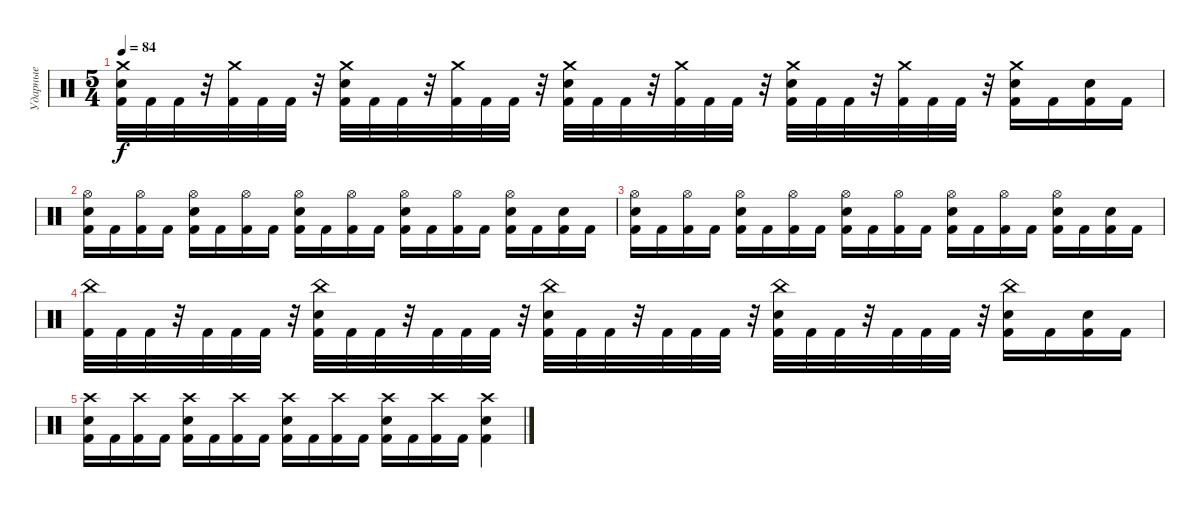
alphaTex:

\track ("Ударные" "Ударные") {instrument percussion}
\staff {score}
\articulation defaults
\ts (5 4)
\tempo 84
\clef neutral
\ks c
("Crash medium (hit)" "Snare (hit) 2" "Kick (hit) 2").32{dy f} "Kick (hit) 2".32 "Kick (hit) 2".32 r.32 ("Crash medium (hit)" "Kick (hit) 2").32 "Kick (hit) 2".32 "Kick (hit) 2".32 r.32 ("Crash medium (hit)" "Snare (hit) 2" "Kick (hit) 2").32 "Kick (hit) 2".32 "Kick (hit) 2".32 r.32 ("Crash medium (hit)" "Kick (hit) 2").32 "Kick (hit) 2".32 "Kick (hit) 2".32 r.32 ("Crash medium (hit)" "Snare (hit) 2" "Kick (hit) 2").32 "Kick (hit) 2".32 "Kick (hit) 2".32 r.32 ("Crash medium (hit)" "Kick (hit) 2").32 "Kick (hit) 2".32 "Kick (hit) 2".32 r.32 ("Crash medium (hit)" "Snare (hit) 2" "Kick (hit) 2").32 "Kick (hit) 2".32 "Kick (hit) 2".32 r.32 ("Crash medium (hit)" "Kick (hit) 2").32 "Kick (hit) 2".32 "Kick (hit) 2".32 r.32 ("Crash medium (hit)" "Snare (hit) 2" "Kick (hit) 2").16 "Kick (hit) 2".16 ("Snare (hit) 2" "Kick (hit) 2").16 "Kick (hit) 2".16 |
("Hi-Hat (open)" "Snare (hit) 2" "Kick (hit) 2").16 "Kick (hit) 2".16 ("Hi-Hat (open)" "Kick (hit) 2").16 "Kick (hit) 2".16 ("Hi-Hat (open)" "Snare (hit) 2" "Kick (hit) 2").16 "Kick (hit) 2".16 ("Hi-Hat (open)" "Kick (hit) 2").16 "Kick (hit) 2".16 ("Hi-Hat (open)" "Snare (hit) 2" "Kick (hit) 2").16 "Kick (hit) 2".16 ("Hi-Hat (open)" "Kick (hit) 2").16 "Kick (hit) 2".16 ("Hi-Hat (open)" "Snare (hit) 2" "Kick (hit) 2").16 "Kick (hit) 2".16 ("Hi-Hat (open)" "Kick (hit) 2").16 "Kick (hit) 2".16 ("Hi-Hat (open)" "Snare (hit) 2" "Kick (hit) 2").16 "Kick (hit) 2".16 ("Snare (hit) 2" "Kick (hit) 2").16 "Kick (hit) 2".16 |
("Hi-Hat (open)" "Snare (hit) 2" "Kick (hit) 2").16 "Kick (hit) 2".16 ("Hi-Hat (open)" "Kick (hit) 2").16 "Kick (hit) 2".16 ("Hi-Hat (open)" "Snare (hit) 2" "Kick (hit) 2").16 "Kick (hit) 2".16 ("Hi-Hat (open)" "Kick (hit) 2").16 "Kick (hit) 2".16 ("Hi-Hat (open)" "Snare (hit) 2" "Kick (hit) 2").16 "Kick (hit) 2".16 ("Hi-Hat (open)" "Kick (hit) 2").16 "Kick (hit) 2".16 ("Hi-Hat (open)" "Snare (hit) 2" "Kick (hit) 2").16 "Kick (hit) 2".16 ("Hi-Hat (open)" "Kick (hit) 2").16 "Kick (hit) 2".16 ("Hi-Hat (open)" "Snare (hit) 2" "Kick (hit) 2").16 "Kick (hit) 2".16 ("Snare (hit) 2" "Kick (hit) 2").16 "Kick (hit) 2".16 |
("China (hit)" "Kick (hit) 2").32 "Kick (hit) 2".32 "Kick (hit) 2".32 r.32 "Kick (hit) 2".32 "Kick (hit) 2".32 "Kick (hit) 2".32 r.32 ("China (hit)" "Snare (hit) 2" "Kick (hit) 2").32 "Kick (hit) 2".32 "Kick (hit) 2".32 r.32 "Kick (hit) 2".32 "Kick (hit) 2".32 "Kick (hit) 2".32 r.32 ("China (hit)" "Snare (hit) 2" "Kick (hit) 2").32 "Kick (hit) 2".32 "Kick (hit) 2".32 r.32 "Kick (hit) 2".32 "Kick (hit) 2".32 "Kick (hit) 2".32 r.32 ("China (hit)" "Snare (hit) 2" "Kick (hit) 2").32 "Kick (hit) 2".32 "Kick (hit) 2".32 r.32 "Kick (hit) 2".32 "Kick (hit) 2".32 "Kick (hit) 2".32 r.32 ("China (hit)" "Snare (hit) 2" "Kick (hit) 2").16 "Kick (hit) 2".16 ("Snare (hit) 2" "Kick (hit) 2").16 "Kick (hit) 2".16 |
("Crash high (hit)" "Snare (hit) 2" "Kick (hit) 2").16 "Kick (hit) 2".16 ("Crash high (hit)" "Kick (hit) 2").16 "Kick (hit) 2".16 ("Crash high (hit)" "Snare (hit) 2" "Kick (hit) 2").16 "Kick (hit) 2".16 ("Crash high (hit)" "Kick (hit) 2").16 "Kick (hit) 2".16 ("Crash high (hit)" "Snare (hit) 2" "Kick (hit) 2").16 "Kick (hit) 2".16 ("Crash high (hit)" "Kick (hit) 2").16 "Kick (hit) 2".16 ("Crash high (hit)" "Snare (hit) 2" "Kick (hit) 2").16 "Kick (hit) 2".16 ("Crash high (hit)" "Kick (hit) 2").16 "Kick (hit) 2".16 ("Crash high (hit)" "Snare (hit) 2" "Kick (hit) 2").4
